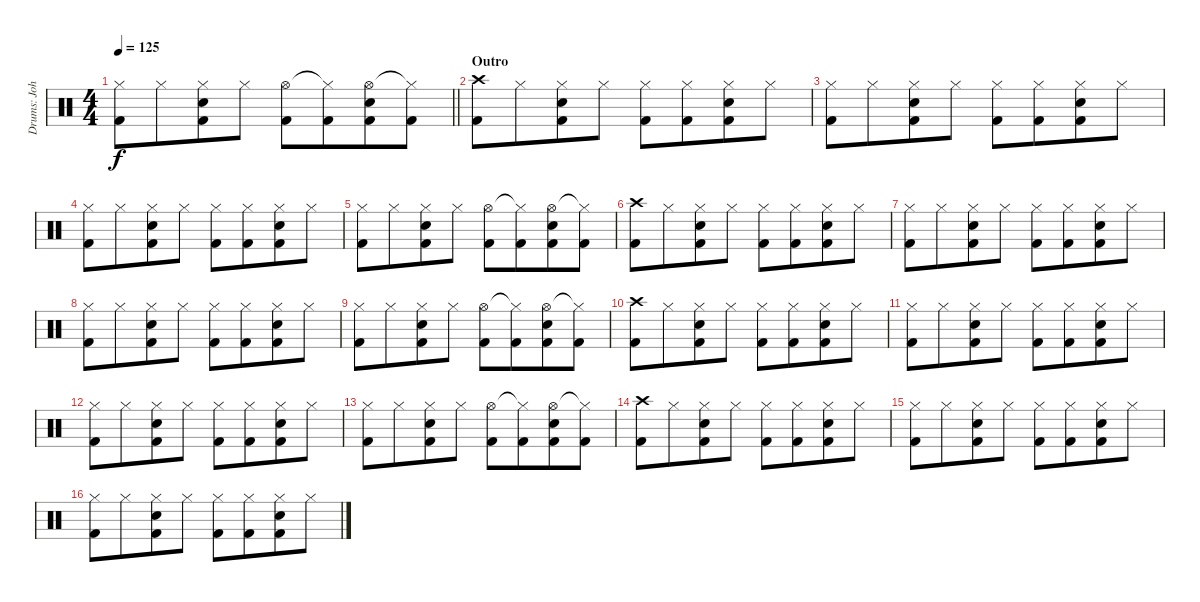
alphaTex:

\track ("Drums: John" "Drums: Joh") {instrument percussion}
\staff {score}
\articulation defaults
\ts (4 4)
\tempo 125
\clef neutral
\barLineRight lightlight
\ks c
("Hi-Hat (closed)" "Kick (hit) 2").8{dy f} "Hi-Hat (closed)".8{beam merge} ("Hi-Hat (closed)" "Snare (hit) 2" "Kick (hit) 2").8 "Hi-Hat (closed)".8 ("Hi-Hat (open)" "Kick (hit) 2").8 ("Hi-Hat (closed)"{t} "Kick (hit) 2").8{beam merge} ("Hi-Hat (open)" "Snare (hit) 2" "Kick (hit) 2").8 ("Hi-Hat (closed)"{t} "Kick (hit) 2").8 |
\section ("" "Outro")
("Crash high (hit)" "Kick (hit) 2").8 "Hi-Hat (closed)".8{beam merge} ("Hi-Hat (closed)" "Snare (hit) 2" "Kick (hit) 2").8 "Hi-Hat (closed)".8 ("Hi-Hat (closed)" "Kick (hit) 2").8 ("Hi-Hat (closed)" "Kick (hit) 2").8{beam merge} ("Hi-Hat (closed)" "Snare (hit) 2" "Kick (hit) 2").8 "Hi-Hat (closed)".8 |
("Hi-Hat (closed)" "Kick (hit) 2").8 "Hi-Hat (closed)".8{beam merge} ("Hi-Hat (closed)" "Snare (hit) 2" "Kick (hit) 2").8 "Hi-Hat (closed)".8 ("Hi-Hat (closed)" "Kick (hit) 2").8 ("Hi-Hat (closed)" "Kick (hit) 2").8{beam merge} ("Hi-Hat (closed)" "Snare (hit) 2" "Kick (hit) 2").8 "Hi-Hat (closed)".8 |
("Hi-Hat (closed)" "Kick (hit) 2").8 "Hi-Hat (closed)".8{beam merge} ("Hi-Hat (closed)" "Snare (hit) 2" "Kick (hit) 2").8 "Hi-Hat (closed)".8 ("Hi-Hat (closed)" "Kick (hit) 2").8 ("Hi-Hat (closed)" "Kick (hit) 2").8{beam merge} ("Hi-Hat (closed)" "Snare (hit) 2" "Kick (hit) 2").8 "Hi-Hat (closed)".8 |
("Hi-Hat (closed)" "Kick (hit) 2").8 "Hi-Hat (closed)".8{beam merge} ("Hi-Hat (closed)" "Snare (hit) 2" "Kick (hit) 2").8 "Hi-Hat (closed)".8 ("Hi-Hat (open)" "Kick (hit) 2").8 ("Hi-Hat (closed)"{t} "Kick (hit) 2").8{beam merge} ("Hi-Hat (open)" "Snare (hit) 2" "Kick (hit) 2").8 ("Hi-Hat (closed)"{t} "Kick (hit) 2").8 |
("Crash high (hit)" "Kick (hit) 2").8 "Hi-Hat (closed)".8{beam merge} ("Hi-Hat (closed)" "Snare (hit) 2" "Kick (hit) 2").8 "Hi-Hat (closed)".8 ("Hi-Hat (closed)" "Kick (hit) 2").8 ("Hi-Hat (closed)" "Kick (hit) 2").8{beam merge} ("Hi-Hat (closed)" "Snare (hit) 2" "Kick (hit) 2").8 "Hi-Hat (closed)".8 |
("Hi-Hat (closed)" "Kick (hit) 2").8 "Hi-Hat (closed)".8{beam merge} ("Hi-Hat (closed)" "Snare (hit) 2" "Kick (hit) 2").8 "Hi-Hat (closed)".8 ("Hi-Hat (closed)" "Kick (hit) 2").8 ("Hi-Hat (closed)" "Kick (hit) 2").8{beam merge} ("Hi-Hat (closed)" "Snare (hit) 2" "Kick (hit) 2").8 "Hi-Hat (closed)".8 |
("Hi-Hat (closed)" "Kick (hit) 2").8 "Hi-Hat (closed)".8{beam merge} ("Hi-Hat (closed)" "Snare (hit) 2" "Kick (hit) 2").8 "Hi-Hat (closed)".8 ("Hi-Hat (closed)" "Kick (hit) 2").8 ("Hi-Hat (closed)" "Kick (hit) 2").8{beam merge} ("Hi-Hat (closed)" "Snare (hit) 2" "Kick (hit) 2").8 "Hi-Hat (closed)".8 |
("Hi-Hat (closed)" "Kick (hit) 2").8 "Hi-Hat (closed)".8{beam merge} ("Hi-Hat (closed)" "Snare (hit) 2" "Kick (hit) 2").8 "Hi-Hat (closed)".8 ("Hi-Hat (open)" "Kick (hit) 2").8 ("Hi-Hat (closed)"{t} "Kick (hit) 2").8{beam merge} ("Hi-Hat (open)" "Snare (hit) 2" "Kick (hit) 2").8 ("Hi-Hat (closed)"{t} "Kick (hit) 2").8 |
("Crash high (hit)" "Kick (hit) 2").8 "Hi-Hat (closed)".8{beam merge} ("Hi-Hat (closed)" "Snare (hit) 2" "Kick (hit) 2").8 "Hi-Hat (closed)".8 ("Hi-Hat (closed)" "Kick (hit) 2").8 ("Hi-Hat (closed)" "Kick (hit) 2").8{beam merge} ("Hi-Hat (closed)" "Snare (hit) 2" "Kick (hit) 2").8 "Hi-Hat (closed)".8 |
("Hi-Hat (closed)" "Kick (hit) 2").8 "Hi-Hat (closed)".8{beam merge} ("Hi-Hat (closed)" "Snare (hit) 2" "Kick (hit) 2").8 "Hi-Hat (closed)".8 ("Hi-Hat (closed)" "Kick (hit) 2").8 ("Hi-Hat (closed)" "Kick (hit) 2").8{beam merge} ("Hi-Hat (closed)" "Snare (hit) 2" "Kick (hit) 2").8 "Hi-Hat (closed)".8 |
("Hi-Hat (closed)" "Kick (hit) 2").8 "Hi-Hat (closed)".8{beam merge} ("Hi-Hat (closed)" "Snare (hit) 2" "Kick (hit) 2").8 "Hi-Hat (closed)".8 ("Hi-Hat (closed)" "Kick (hit) 2").8 ("Hi-Hat (closed)" "Kick (hit) 2").8{beam merge} ("Hi-Hat (closed)" "Snare (hit) 2" "Kick (hit) 2").8 "Hi-Hat (closed)".8 |
("Hi-Hat (closed)" "Kick (hit) 2").8 "Hi-Hat (closed)".8{beam merge} ("Hi-Hat (closed)" "Snare (hit) 2" "Kick (hit) 2").8 "Hi-Hat (closed)".8 ("Hi-Hat (open)" "Kick (hit) 2").8 ("Hi-Hat (closed)"{t} "Kick (hit) 2").8{beam merge} ("Hi-Hat (open)" "Snare (hit) 2" "Kick (hit) 2").8 ("Hi-Hat (closed)"{t} "Kick (hit) 2").8 |
("Crash high (hit)" "Kick (hit) 2").8 "Hi-Hat (closed)".8{beam merge} ("Hi-Hat (closed)" "Snare (hit) 2" "Kick (hit) 2").8 "Hi-Hat (closed)".8 ("Hi-Hat (closed)" "Kick (hit) 2").8 ("Hi-Hat (closed)" "Kick (hit) 2").8{beam merge} ("Hi-Hat (closed)" "Snare (hit) 2" "Kick (hit) 2").8 "Hi-Hat (closed)".8 |
("Hi-Hat (closed)" "Kick (hit) 2").8 "Hi-Hat (closed)".8{beam merge} ("Hi-Hat (closed)" "Snare (hit) 2" "Kick (hit) 2").8 "Hi-Hat (closed)".8 ("Hi-Hat (closed)" "Kick (hit) 2").8 ("Hi-Hat (closed)" "Kick (hit) 2").8{beam merge} ("Hi-Hat (closed)" "Snare (hit) 2" "Kick (hit) 2").8 "Hi-Hat (closed)".8 |
("Hi-Hat (closed)" "Kick (hit) 2").8 "Hi-Hat (closed)".8{beam merge} ("Hi-Hat (closed)" "Snare (hit) 2" "Kick (hit) 2").8 "Hi-Hat (closed)".8 ("Hi-Hat (closed)" "Kick (hit) 2").8 ("Hi-Hat (closed)" "Kick (hit) 2").8{beam merge} ("Hi-Hat (closed)" "Snare (hit) 2" "Kick (hit) 2").8 "Hi-Hat (closed)".8
